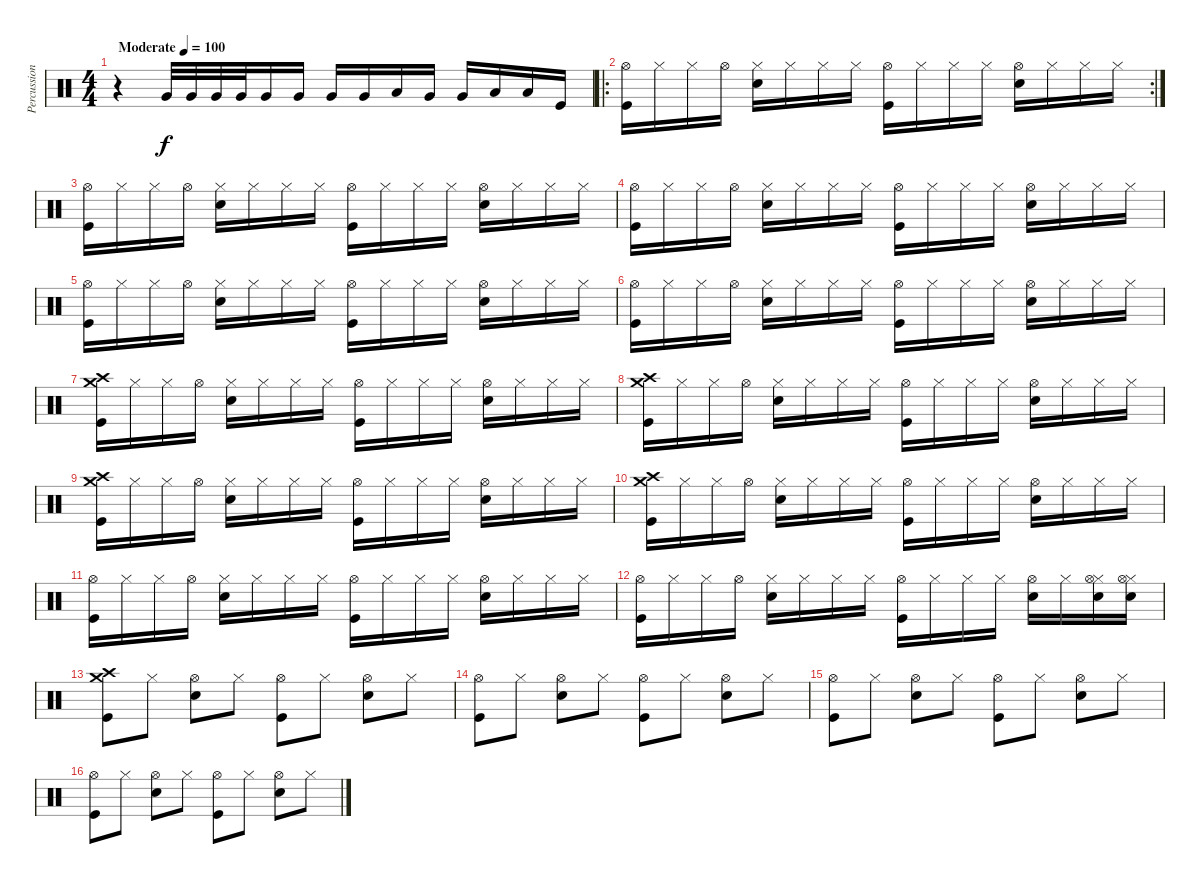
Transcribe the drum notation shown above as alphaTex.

\track ("Percussions" "Percussion") {instrument percussion}
\staff {score}
\articulation defaults
\ts (4 4)
\tempo (100 "Moderate")
\clef neutral
\ks c
r.4{dy f} "Very Low Tom (hit)".32 "Very Low Tom (hit)".32 "Very Low Tom (hit)".32 "Very Low Tom (hit)".32 "Very Low Tom (hit)".16 "Very Low Tom (hit)".16 "Very Low Tom (hit)".16 "Very Low Tom (hit)".16 "Low Tom (hit)".16 "Very Low Tom (hit)".16 "Very Low Tom (hit)".16 "Low Floor Tom (hit)".16 "Low Floor Tom (hit)".16 "Kick (hit)".16 |
\ro
\rc 2
("Hi-Hat (open)" "Kick (hit)").16 "Hi-Hat (closed)".16 "Hi-Hat (closed)".16 "Hi-Hat (open)".16 ("Hi-Hat (closed)" "Electric Snare (hit)").16 "Hi-Hat (closed)".16 "Hi-Hat (closed)".16 "Hi-Hat (closed)".16 ("Hi-Hat (open)" "Kick (hit)").16 "Hi-Hat (closed)".16 "Hi-Hat (closed)".16 "Hi-Hat (closed)".16 ("Hi-Hat (open)" "Electric Snare (hit)").16 "Hi-Hat (closed)".16 "Hi-Hat (closed)".16 "Hi-Hat (closed)".16 |
("Hi-Hat (open)" "Kick (hit)").16 "Hi-Hat (closed)".16 "Hi-Hat (closed)".16 "Hi-Hat (open)".16 ("Hi-Hat (closed)" "Electric Snare (hit)").16 "Hi-Hat (closed)".16 "Hi-Hat (closed)".16 "Hi-Hat (closed)".16 ("Hi-Hat (open)" "Kick (hit)").16 "Hi-Hat (closed)".16 "Hi-Hat (closed)".16 "Hi-Hat (closed)".16 ("Hi-Hat (open)" "Electric Snare (hit)").16 "Hi-Hat (closed)".16 "Hi-Hat (closed)".16 "Hi-Hat (closed)".16 |
("Hi-Hat (open)" "Kick (hit)").16 "Hi-Hat (closed)".16 "Hi-Hat (closed)".16 "Hi-Hat (open)".16 ("Hi-Hat (closed)" "Electric Snare (hit)").16 "Hi-Hat (closed)".16 "Hi-Hat (closed)".16 "Hi-Hat (closed)".16 ("Hi-Hat (open)" "Kick (hit)").16 "Hi-Hat (closed)".16 "Hi-Hat (closed)".16 "Hi-Hat (closed)".16 ("Hi-Hat (open)" "Electric Snare (hit)").16 "Hi-Hat (closed)".16 "Hi-Hat (closed)".16 "Hi-Hat (closed)".16 |
("Hi-Hat (open)" "Kick (hit)").16 "Hi-Hat (closed)".16 "Hi-Hat (closed)".16 "Hi-Hat (open)".16 ("Hi-Hat (closed)" "Electric Snare (hit)").16 "Hi-Hat (closed)".16 "Hi-Hat (closed)".16 "Hi-Hat (closed)".16 ("Hi-Hat (open)" "Kick (hit)").16 "Hi-Hat (closed)".16 "Hi-Hat (closed)".16 "Hi-Hat (closed)".16 ("Hi-Hat (open)" "Electric Snare (hit)").16 "Hi-Hat (closed)".16 "Hi-Hat (closed)".16 "Hi-Hat (closed)".16 |
("Hi-Hat (open)" "Kick (hit)").16 "Hi-Hat (closed)".16 "Hi-Hat (closed)".16 "Hi-Hat (open)".16 ("Hi-Hat (closed)" "Electric Snare (hit)").16 "Hi-Hat (closed)".16 "Hi-Hat (closed)".16 "Hi-Hat (closed)".16 ("Hi-Hat (open)" "Kick (hit)").16 "Hi-Hat (closed)".16 "Hi-Hat (closed)".16 "Hi-Hat (closed)".16 ("Hi-Hat (open)" "Electric Snare (hit)").16 "Hi-Hat (closed)".16 "Hi-Hat (closed)".16 "Hi-Hat (closed)".16 |
("Crash high (hit)" "Kick (hit)" "Crash medium (hit)").16 "Hi-Hat (closed)".16 "Hi-Hat (closed)".16 "Hi-Hat (open)".16 ("Hi-Hat (closed)" "Snare (hit) 2").16 "Hi-Hat (closed)".16 "Hi-Hat (closed)".16 "Hi-Hat (closed)".16 ("Hi-Hat (open)" "Kick (hit)").16 "Hi-Hat (closed)".16 "Hi-Hat (closed)".16 "Hi-Hat (closed)".16 ("Hi-Hat (open)" "Snare (hit) 2").16 "Hi-Hat (closed)".16 "Hi-Hat (closed)".16 "Hi-Hat (closed)".16 |
("Crash high (hit)" "Kick (hit)" "Crash medium (hit)").16 "Hi-Hat (closed)".16 "Hi-Hat (closed)".16 "Hi-Hat (open)".16 ("Hi-Hat (closed)" "Snare (hit) 2").16 "Hi-Hat (closed)".16 "Hi-Hat (closed)".16 "Hi-Hat (closed)".16 ("Hi-Hat (open)" "Kick (hit)").16 "Hi-Hat (closed)".16 "Hi-Hat (closed)".16 "Hi-Hat (closed)".16 ("Hi-Hat (open)" "Snare (hit) 2").16 "Hi-Hat (closed)".16 "Hi-Hat (closed)".16 "Hi-Hat (closed)".16 |
("Crash high (hit)" "Kick (hit)" "Crash medium (hit)").16 "Hi-Hat (closed)".16 "Hi-Hat (closed)".16 "Hi-Hat (open)".16 ("Hi-Hat (closed)" "Snare (hit) 2").16 "Hi-Hat (closed)".16 "Hi-Hat (closed)".16 "Hi-Hat (closed)".16 ("Hi-Hat (open)" "Kick (hit)").16 "Hi-Hat (closed)".16 "Hi-Hat (closed)".16 "Hi-Hat (closed)".16 ("Hi-Hat (open)" "Snare (hit) 2").16 "Hi-Hat (closed)".16 "Hi-Hat (closed)".16 "Hi-Hat (closed)".16 |
("Crash high (hit)" "Kick (hit)" "Crash medium (hit)").16 "Hi-Hat (closed)".16 "Hi-Hat (closed)".16 "Hi-Hat (open)".16 ("Hi-Hat (closed)" "Snare (hit) 2").16 "Hi-Hat (closed)".16 "Hi-Hat (closed)".16 "Hi-Hat (closed)".16 ("Hi-Hat (open)" "Kick (hit)").16 "Hi-Hat (closed)".16 "Hi-Hat (closed)".16 "Hi-Hat (closed)".16 ("Hi-Hat (open)" "Snare (hit) 2").16 "Hi-Hat (closed)".16 "Hi-Hat (closed)".16 "Hi-Hat (closed)".16 |
("Hi-Hat (open)" "Kick (hit)").16 "Hi-Hat (closed)".16 "Hi-Hat (closed)".16 "Hi-Hat (open)".16 ("Hi-Hat (closed)" "Snare (hit) 2").16 "Hi-Hat (closed)".16 "Hi-Hat (closed)".16 "Hi-Hat (closed)".16 ("Hi-Hat (open)" "Kick (hit)").16 "Hi-Hat (closed)".16 "Hi-Hat (closed)".16 "Hi-Hat (closed)".16 ("Hi-Hat (open)" "Snare (hit) 2").16 "Hi-Hat (closed)".16 "Hi-Hat (closed)".16 "Hi-Hat (closed)".16 |
("Hi-Hat (open)" "Kick (hit)").16 "Hi-Hat (closed)".16 "Hi-Hat (closed)".16 "Hi-Hat (open)".16 ("Hi-Hat (closed)" "Snare (hit) 2").16 "Hi-Hat (closed)".16 "Hi-Hat (closed)".16 "Hi-Hat (closed)".16 ("Hi-Hat (open)" "Kick (hit)").16 "Hi-Hat (closed)".16 "Hi-Hat (closed)".16 "Hi-Hat (closed)".16 ("Hi-Hat (open)" "Snare (hit) 2").16 "Hi-Hat (closed)".16 ("Hi-Hat (closed)" "Snare (hit) 2" "Hi-Hat (open)").16 ("Hi-Hat (closed)" "Snare (hit) 2" "Hi-Hat (open)").16 |
("Crash high (hit)" "Crash medium (hit)" "Kick (hit)").8 "Hi-Hat (closed)".8 ("Hi-Hat (open)" "Snare (hit) 2").8 "Hi-Hat (closed)".8 ("Hi-Hat (open)" "Kick (hit)").8 "Hi-Hat (closed)".8 ("Hi-Hat (open)" "Snare (hit) 2").8 "Hi-Hat (closed)".8 |
("Hi-Hat (open)" "Kick (hit)").8 "Hi-Hat (closed)".8 ("Hi-Hat (open)" "Snare (hit) 2").8 "Hi-Hat (closed)".8 ("Hi-Hat (open)" "Kick (hit)").8 "Hi-Hat (closed)".8 ("Hi-Hat (open)" "Snare (hit) 2").8 "Hi-Hat (closed)".8 |
("Hi-Hat (open)" "Kick (hit)").8 "Hi-Hat (closed)".8 ("Hi-Hat (open)" "Snare (hit) 2").8 "Hi-Hat (closed)".8 ("Hi-Hat (open)" "Kick (hit)").8 "Hi-Hat (closed)".8 ("Hi-Hat (open)" "Snare (hit) 2").8 "Hi-Hat (closed)".8 |
("Hi-Hat (open)" "Kick (hit)").8 "Hi-Hat (closed)".8 ("Hi-Hat (open)" "Snare (hit) 2").8 "Hi-Hat (closed)".8 ("Hi-Hat (open)" "Kick (hit)").8 "Hi-Hat (closed)".8 ("Hi-Hat (open)" "Snare (hit) 2").8 "Hi-Hat (closed)".8
